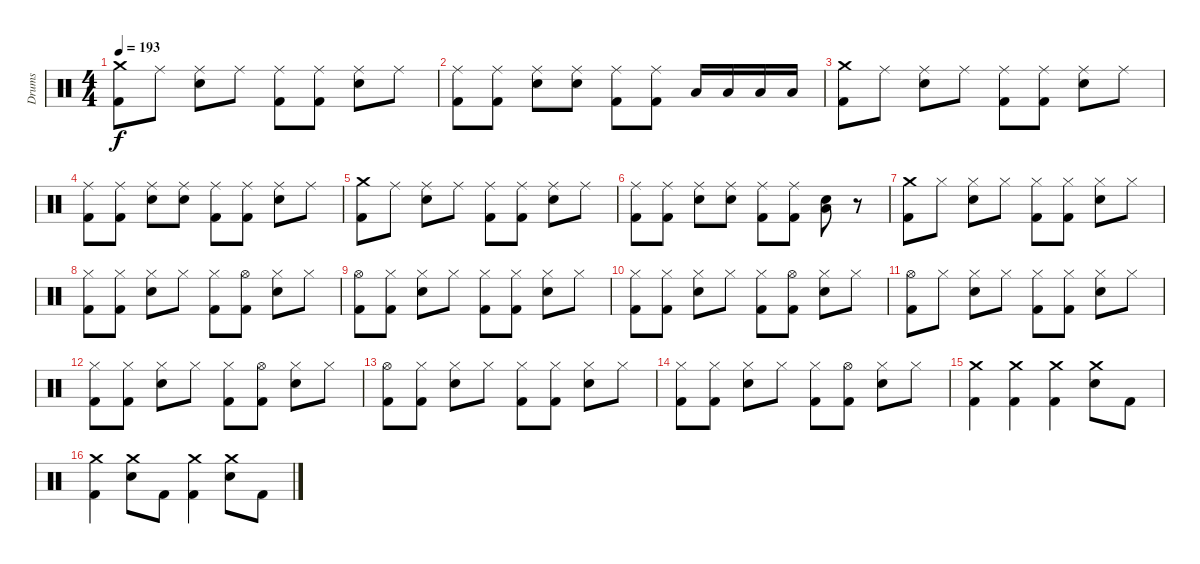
\track ("Drums" "Drums") {instrument percussion}
\staff {score}
\articulation defaults
\ts (4 4)
\tempo 193
\clef neutral
\ks c
("Crash medium (hit)" "Kick (hit) 2").8{dy f} "Ride (middle)".8 ("Ride (middle)" "Snare (hit) 2").8 "Ride (middle)".8 ("Ride (middle)" "Kick (hit) 2").8 ("Ride (middle)" "Kick (hit) 2").8 ("Ride (middle)" "Snare (hit) 2").8 "Ride (middle)".8 |
("Ride (middle)" "Kick (hit) 2").8 ("Ride (middle)" "Kick (hit) 2").8 ("Ride (middle)" "Snare (hit) 2").8 ("Ride (middle)" "Snare (hit) 2").8 ("Ride (middle)" "Kick (hit) 2").8 ("Ride (middle)" "Kick (hit) 2").8 "Low Floor Tom (hit)".16 "Low Floor Tom (hit)".16 "Low Floor Tom (hit)".16 "Low Floor Tom (hit)".16 |
("Crash medium (hit)" "Kick (hit) 2").8 "Ride (middle)".8 ("Ride (middle)" "Snare (hit) 2").8 "Ride (middle)".8 ("Ride (middle)" "Kick (hit) 2").8 ("Ride (middle)" "Kick (hit) 2").8 ("Ride (middle)" "Snare (hit) 2").8 "Ride (middle)".8 |
("Ride (middle)" "Kick (hit) 2").8 ("Ride (middle)" "Kick (hit) 2").8 ("Ride (middle)" "Snare (hit) 2").8 ("Ride (middle)" "Snare (hit) 2").8 ("Ride (middle)" "Kick (hit) 2").8 ("Ride (middle)" "Kick (hit) 2").8 ("Ride (middle)" "Snare (hit) 2").8 "Ride (middle)".8 |
("Crash medium (hit)" "Kick (hit) 2").8 "Ride (middle)".8 ("Ride (middle)" "Snare (hit) 2").8 "Ride (middle)".8 ("Ride (middle)" "Kick (hit) 2").8 ("Ride (middle)" "Kick (hit) 2").8 ("Ride (middle)" "Snare (hit) 2").8 "Ride (middle)".8 |
("Ride (middle)" "Kick (hit) 2").8 ("Ride (middle)" "Kick (hit) 2").8 ("Ride (middle)" "Snare (hit) 2").8 ("Ride (middle)" "Snare (hit) 2").8 ("Ride (middle)" "Kick (hit) 2").8 ("Ride (middle)" "Kick (hit) 2").8 ("Snare (hit) 2" "Low Floor Tom (hit)").8 r.8 |
("Crash medium (hit)" "Kick (hit) 2").8 "Hi-Hat (closed)".8 ("Hi-Hat (closed)" "Snare (hit) 2").8 "Hi-Hat (closed)".8 ("Hi-Hat (closed)" "Kick (hit) 2").8 ("Hi-Hat (closed)" "Kick (hit) 2").8 ("Hi-Hat (closed)" "Snare (hit) 2").8 "Hi-Hat (closed)".8 |
("Hi-Hat (closed)" "Kick (hit) 2").8 ("Hi-Hat (closed)" "Kick (hit) 2").8 ("Hi-Hat (closed)" "Snare (hit) 2").8 "Hi-Hat (closed)".8 ("Hi-Hat (closed)" "Kick (hit) 2").8 ("Hi-Hat (open)" "Kick (hit) 2").8 ("Hi-Hat (closed)" "Snare (hit) 2").8 "Hi-Hat (closed)".8 |
("Hi-Hat (open)" "Kick (hit) 2").8 ("Hi-Hat (closed)" "Kick (hit) 2").8 ("Hi-Hat (closed)" "Snare (hit) 2").8 "Hi-Hat (closed)".8 ("Hi-Hat (closed)" "Kick (hit) 2").8 ("Hi-Hat (closed)" "Kick (hit) 2").8 ("Hi-Hat (closed)" "Snare (hit) 2").8 "Hi-Hat (closed)".8 |
("Hi-Hat (closed)" "Kick (hit) 2").8 ("Hi-Hat (closed)" "Kick (hit) 2").8 ("Hi-Hat (closed)" "Snare (hit) 2").8 "Hi-Hat (closed)".8 ("Hi-Hat (closed)" "Kick (hit) 2").8 ("Hi-Hat (open)" "Kick (hit) 2").8 ("Hi-Hat (closed)" "Snare (hit) 2").8 "Hi-Hat (closed)".8 |
("Hi-Hat (open)" "Kick (hit) 2").8 "Hi-Hat (closed)".8 ("Hi-Hat (closed)" "Snare (hit) 2").8 "Hi-Hat (closed)".8 ("Hi-Hat (closed)" "Kick (hit) 2").8 ("Hi-Hat (closed)" "Kick (hit) 2").8 ("Hi-Hat (closed)" "Snare (hit) 2").8 "Hi-Hat (closed)".8 |
("Hi-Hat (closed)" "Kick (hit) 2").8 ("Hi-Hat (closed)" "Kick (hit) 2").8 ("Hi-Hat (closed)" "Snare (hit) 2").8 "Hi-Hat (closed)".8 ("Hi-Hat (closed)" "Kick (hit) 2").8 ("Hi-Hat (open)" "Kick (hit) 2").8 ("Hi-Hat (closed)" "Snare (hit) 2").8 "Hi-Hat (closed)".8 |
("Hi-Hat (open)" "Kick (hit) 2").8 ("Hi-Hat (closed)" "Kick (hit) 2").8 ("Hi-Hat (closed)" "Snare (hit) 2").8 "Hi-Hat (closed)".8 ("Hi-Hat (closed)" "Kick (hit) 2").8 ("Hi-Hat (closed)" "Kick (hit) 2").8 ("Hi-Hat (closed)" "Snare (hit) 2").8 "Hi-Hat (closed)".8 |
("Hi-Hat (closed)" "Kick (hit) 2").8 ("Hi-Hat (closed)" "Kick (hit) 2").8 ("Hi-Hat (closed)" "Snare (hit) 2").8 "Hi-Hat (closed)".8 ("Hi-Hat (closed)" "Kick (hit) 2").8 ("Hi-Hat (open)" "Kick (hit) 2").8 ("Hi-Hat (closed)" "Snare (hit) 2").8 "Hi-Hat (closed)".8 |
("Crash medium (hit)" "Kick (hit) 2").4 ("Crash medium (hit)" "Kick (hit) 2").4 ("Crash medium (hit)" "Kick (hit) 2").4 ("Crash medium (hit)" "Snare (hit) 2").8 "Kick (hit) 2".8 |
("Crash medium (hit)" "Kick (hit) 2").4 ("Crash medium (hit)" "Snare (hit) 2").8 "Kick (hit) 2".8 ("Crash medium (hit)" "Kick (hit) 2").4 ("Crash medium (hit)" "Snare (hit) 2").8 "Kick (hit) 2".8
